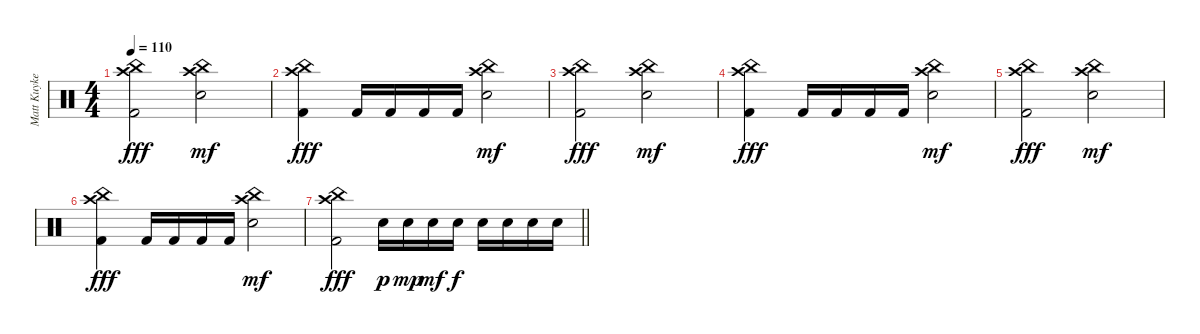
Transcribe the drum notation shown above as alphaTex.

\track ("Matt Kuykendall" "Matt Kuyke") {instrument percussion}
\staff {score}
\articulation defaults
\ts (4 4)
\tempo 110
\clef neutral
\ks c
("Crash high (hit)" "China (hit)" "Kick (hit) 2").2{dy fff} ("Crash high (hit)" "China (hit)" "Electric Snare (hit)").2{dy mf} |
("Crash high (hit)" "China (hit)" "Kick (hit) 2").4{dy fff} "Kick (hit) 2".16 "Kick (hit) 2".16 "Kick (hit) 2".16 "Kick (hit) 2".16 ("Crash high (hit)" "China (hit)" "Electric Snare (hit)").2{dy mf} |
("Crash high (hit)" "China (hit)" "Kick (hit) 2").2{dy fff} ("Crash high (hit)" "China (hit)" "Electric Snare (hit)").2{dy mf} |
("Crash high (hit)" "China (hit)" "Kick (hit) 2").4{dy fff} "Kick (hit) 2".16 "Kick (hit) 2".16 "Kick (hit) 2".16 "Kick (hit) 2".16 ("Crash high (hit)" "China (hit)" "Electric Snare (hit)").2{dy mf} |
("Crash high (hit)" "China (hit)" "Kick (hit) 2").2{dy fff} ("Crash high (hit)" "China (hit)" "Electric Snare (hit)").2{dy mf} |
("Crash high (hit)" "China (hit)" "Kick (hit) 2").4{dy fff} "Kick (hit) 2".16 "Kick (hit) 2".16 "Kick (hit) 2".16 "Kick (hit) 2".16 ("Crash high (hit)" "China (hit)" "Electric Snare (hit)").2{dy mf} |
\barLineRight lightlight
("Crash high (hit)" "China (hit)" "Kick (hit) 2").2{dy fff} "Electric Snare (hit)".16{dy p} "Electric Snare (hit)".16{dy mp} "Electric Snare (hit)".16{dy mf} "Electric Snare (hit)".16{dy f} "Electric Snare (hit)".16 "Electric Snare (hit)".16 "Electric Snare (hit)".16 "Electric Snare (hit)".16
